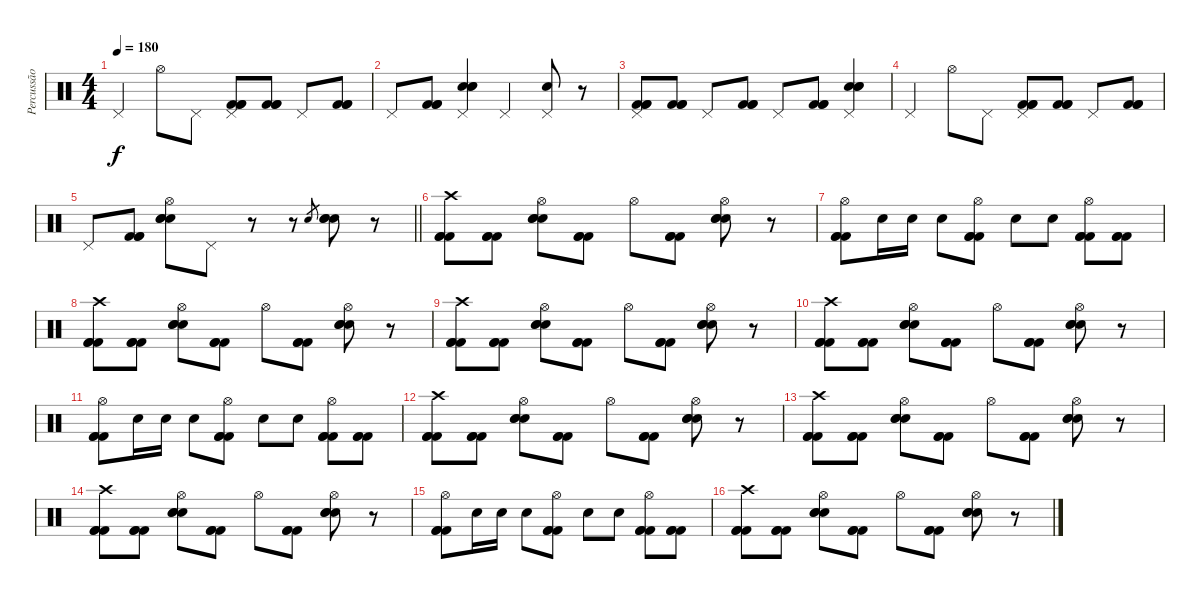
\track ("Percussão" "Percussão") {instrument percussion}
\staff {score}
\articulation defaults
\ts (4 4)
\tempo 180
\clef neutral
\ks c "Pedal Hi-Hat (hit)".4{dy f} "Hi-Hat (open)".8 "Pedal Hi-Hat (hit)".8
("Pedal Hi-Hat (hit)" "Kick (hit) 2" "Kick (hit) 2" "Kick (hit) 2").8 ("Kick (hit) 2" "Kick (hit) 2" "Kick (hit) 2").8 "Pedal Hi-Hat (hit)".8 ("Kick (hit) 2" "Kick (hit) 2" "Kick (hit) 2").8 |
"Pedal Hi-Hat (hit)".8 ("Kick (hit) 2" "Kick (hit) 2" "Kick (hit) 2").8 ("Pedal Hi-Hat (hit)" "Electric Snare (hit)" "Electric Snare (hit)" "Electric Snare (hit)").4 "Pedal Hi-Hat (hit)".4 ("Pedal Hi-Hat (hit)" "Electric Snare (hit)").8 r.8 |
("Pedal Hi-Hat (hit)" "Kick (hit) 2" "Kick (hit) 2" "Kick (hit) 2").8 ("Kick (hit) 2" "Kick (hit) 2" "Kick (hit) 2").8 "Pedal Hi-Hat (hit)".8 ("Kick (hit) 2" "Kick (hit) 2" "Kick (hit) 2").8 "Pedal Hi-Hat (hit)".8 ("Kick (hit) 2" "Kick (hit) 2" "Kick (hit) 2").8 ("Pedal Hi-Hat (hit)" "Electric Snare (hit)" "Electric Snare (hit)" "Electric Snare (hit)").4 |
"Pedal Hi-Hat (hit)".4 "Hi-Hat (open)".8 "Pedal Hi-Hat (hit)".8 ("Pedal Hi-Hat (hit)" "Kick (hit) 2" "Kick (hit) 2" "Kick (hit) 2").8 ("Kick (hit) 2" "Kick (hit) 2" "Kick (hit) 2").8 "Pedal Hi-Hat (hit)".8 ("Kick (hit) 2" "Kick (hit) 2" "Kick (hit) 2").8 |
\barLineRight lightlight "Pedal Hi-Hat (hit)".8
("Kick (hit) 2" "Kick (hit) 2" "Kick (hit) 2").8 ("Hi-Hat (open)" "Electric Snare (hit)" "Electric Snare (hit)" "Electric Snare (hit)").8 "Pedal Hi-Hat (hit)".8 r.8 r.8 "Electric Snare (hit)".8{gr} ("Electric Snare (hit)" "Electric Snare (hit)" "Electric Snare (hit)").8 r.8 |
\section ("" "")
("Crash high (hit)" "Kick (hit) 2" "Kick (hit) 2" "Kick (hit) 2").8 ("Kick (hit) 2" "Kick (hit) 2" "Kick (hit) 2").8 ("Hi-Hat (open)" "Electric Snare (hit)" "Electric Snare (hit)" "Electric Snare (hit)").8 ("Kick (hit) 2" "Kick (hit) 2" "Kick (hit) 2").8 "Hi-Hat (open)".8 ("Kick (hit) 2" "Kick (hit) 2" "Kick (hit) 2").8 ("Hi-Hat (open)" "Electric Snare (hit)" "Electric Snare (hit)" "Electric Snare (hit)").8 r.8 |
("Hi-Hat (open)" "Kick (hit) 2" "Kick (hit) 2" "Kick (hit) 2").8 "Electric Snare (hit)".16 "Electric Snare (hit)".16 "Electric Snare (hit)".8 ("Hi-Hat (open)" "Kick (hit) 2" "Kick (hit) 2" "Kick (hit) 2").8 "Electric Snare (hit)".8 "Electric Snare (hit)".8 ("Hi-Hat (open)" "Kick (hit) 2" "Kick (hit) 2" "Kick (hit) 2").8 ("Kick (hit) 2" "Kick (hit) 2" "Kick (hit) 2").8 |
("Crash high (hit)" "Kick (hit) 2" "Kick (hit) 2" "Kick (hit) 2").8 ("Kick (hit) 2" "Kick (hit) 2" "Kick (hit) 2").8 ("Hi-Hat (open)" "Electric Snare (hit)" "Electric Snare (hit)" "Electric Snare (hit)").8 ("Kick (hit) 2" "Kick (hit) 2" "Kick (hit) 2").8 "Hi-Hat (open)".8 ("Kick (hit) 2" "Kick (hit) 2" "Kick (hit) 2").8 ("Hi-Hat (open)" "Electric Snare (hit)" "Electric Snare (hit)" "Electric Snare (hit)").8 r.8 |
("Crash high (hit)" "Kick (hit) 2" "Kick (hit) 2" "Kick (hit) 2").8 ("Kick (hit) 2" "Kick (hit) 2" "Kick (hit) 2").8 ("Hi-Hat (open)" "Electric Snare (hit)" "Electric Snare (hit)" "Electric Snare (hit)").8 ("Kick (hit) 2" "Kick (hit) 2" "Kick (hit) 2").8 "Hi-Hat (open)".8 ("Kick (hit) 2" "Kick (hit) 2" "Kick (hit) 2").8 ("Hi-Hat (open)" "Electric Snare (hit)" "Electric Snare (hit)" "Electric Snare (hit)").8 r.8 |
("Crash high (hit)" "Kick (hit) 2" "Kick (hit) 2" "Kick (hit) 2").8 ("Kick (hit) 2" "Kick (hit) 2" "Kick (hit) 2").8 ("Hi-Hat (open)" "Electric Snare (hit)" "Electric Snare (hit)" "Electric Snare (hit)").8 ("Kick (hit) 2" "Kick (hit) 2" "Kick (hit) 2").8 "Hi-Hat (open)".8 ("Kick (hit) 2" "Kick (hit) 2" "Kick (hit) 2").8 ("Hi-Hat (open)" "Electric Snare (hit)" "Electric Snare (hit)" "Electric Snare (hit)").8 r.8 |
("Hi-Hat (open)" "Kick (hit) 2" "Kick (hit) 2" "Kick (hit) 2").8 "Electric Snare (hit)".16 "Electric Snare (hit)".16 "Electric Snare (hit)".8 ("Hi-Hat (open)" "Kick (hit) 2" "Kick (hit) 2" "Kick (hit) 2").8 "Electric Snare (hit)".8 "Electric Snare (hit)".8 ("Hi-Hat (open)" "Kick (hit) 2" "Kick (hit) 2" "Kick (hit) 2").8 ("Kick (hit) 2" "Kick (hit) 2" "Kick (hit) 2").8 |
("Crash high (hit)" "Kick (hit) 2" "Kick (hit) 2" "Kick (hit) 2").8 ("Kick (hit) 2" "Kick (hit) 2" "Kick (hit) 2").8 ("Hi-Hat (open)" "Electric Snare (hit)" "Electric Snare (hit)" "Electric Snare (hit)").8 ("Kick (hit) 2" "Kick (hit) 2" "Kick (hit) 2").8 "Hi-Hat (open)".8 ("Kick (hit) 2" "Kick (hit) 2" "Kick (hit) 2").8 ("Hi-Hat (open)" "Electric Snare (hit)" "Electric Snare (hit)" "Electric Snare (hit)").8 r.8 |
("Crash high (hit)" "Kick (hit) 2" "Kick (hit) 2" "Kick (hit) 2").8 ("Kick (hit) 2" "Kick (hit) 2" "Kick (hit) 2").8 ("Hi-Hat (open)" "Electric Snare (hit)" "Electric Snare (hit)" "Electric Snare (hit)").8 ("Kick (hit) 2" "Kick (hit) 2" "Kick (hit) 2").8 "Hi-Hat (open)".8 ("Kick (hit) 2" "Kick (hit) 2" "Kick (hit) 2").8 ("Hi-Hat (open)" "Electric Snare (hit)" "Electric Snare (hit)" "Electric Snare (hit)").8 r.8 |
("Crash high (hit)" "Kick (hit) 2" "Kick (hit) 2" "Kick (hit) 2").8 ("Kick (hit) 2" "Kick (hit) 2" "Kick (hit) 2").8 ("Hi-Hat (open)" "Electric Snare (hit)" "Electric Snare (hit)" "Electric Snare (hit)").8 ("Kick (hit) 2" "Kick (hit) 2" "Kick (hit) 2").8 "Hi-Hat (open)".8 ("Kick (hit) 2" "Kick (hit) 2" "Kick (hit) 2").8 ("Hi-Hat (open)" "Electric Snare (hit)" "Electric Snare (hit)" "Electric Snare (hit)").8 r.8 |
("Hi-Hat (open)" "Kick (hit) 2" "Kick (hit) 2" "Kick (hit) 2").8 "Electric Snare (hit)".16 "Electric Snare (hit)".16 "Electric Snare (hit)".8 ("Hi-Hat (open)" "Kick (hit) 2" "Kick (hit) 2" "Kick (hit) 2").8 "Electric Snare (hit)".8 "Electric Snare (hit)".8 ("Hi-Hat (open)" "Kick (hit) 2" "Kick (hit) 2" "Kick (hit) 2").8 ("Kick (hit) 2" "Kick (hit) 2" "Kick (hit) 2").8 |
("Crash high (hit)" "Kick (hit) 2" "Kick (hit) 2" "Kick (hit) 2").8 ("Kick (hit) 2" "Kick (hit) 2" "Kick (hit) 2").8 ("Hi-Hat (open)" "Electric Snare (hit)" "Electric Snare (hit)" "Electric Snare (hit)").8 ("Kick (hit) 2" "Kick (hit) 2" "Kick (hit) 2").8 "Hi-Hat (open)".8 ("Kick (hit) 2" "Kick (hit) 2" "Kick (hit) 2").8 ("Hi-Hat (open)" "Electric Snare (hit)" "Electric Snare (hit)" "Electric Snare (hit)").8 r.8
